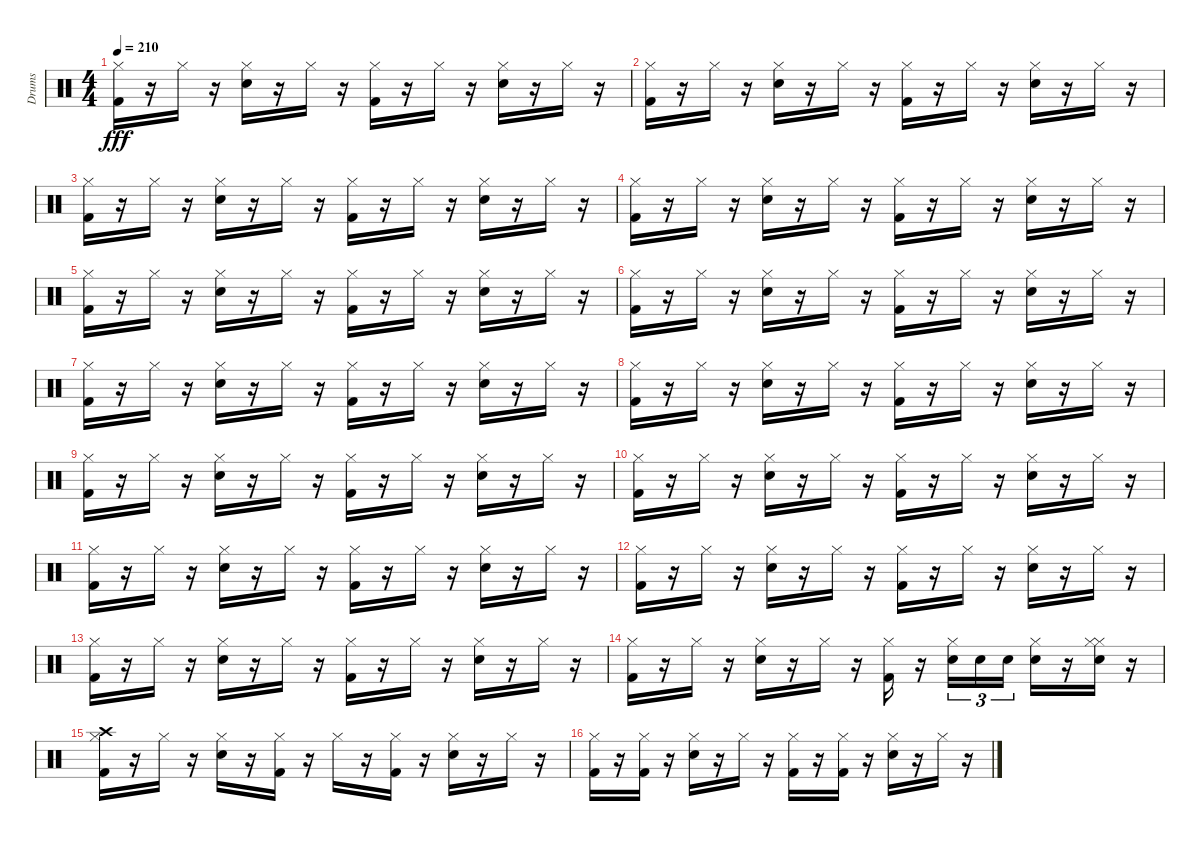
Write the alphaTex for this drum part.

\track ("Drums" "Drums") {instrument percussion}
\staff {score}
\articulation defaults
\ts (4 4)
\tempo 210
\clef neutral
\ks c
("Kick (hit) 2" "Hi-Hat (closed)").16{dy fff} r.16 "Hi-Hat (closed)".16 r.16 ("Snare (hit) 2" "Hi-Hat (closed)").16 r.16 "Hi-Hat (closed)".16 r.16 ("Hi-Hat (closed)" "Kick (hit) 2").16 r.16 "Hi-Hat (closed)".16 r.16 ("Hi-Hat (closed)" "Snare (hit) 2").16 r.16 "Hi-Hat (closed)".16 r.16 |
("Hi-Hat (closed)" "Kick (hit) 2").16 r.16 "Hi-Hat (closed)".16 r.16 ("Snare (hit) 2" "Hi-Hat (closed)").16 r.16 "Hi-Hat (closed)".16 r.16 ("Kick (hit) 2" "Hi-Hat (closed)").16 r.16 "Hi-Hat (closed)".16 r.16 ("Snare (hit) 2" "Hi-Hat (closed)").16 r.16 "Hi-Hat (closed)".16 r.16 |
("Kick (hit) 2" "Hi-Hat (closed)").16 r.16 "Hi-Hat (closed)".16 r.16 ("Snare (hit) 2" "Hi-Hat (closed)").16 r.16 "Hi-Hat (closed)".16 r.16 ("Hi-Hat (closed)" "Kick (hit) 2").16 r.16 "Hi-Hat (closed)".16 r.16 ("Snare (hit) 2" "Hi-Hat (closed)").16 r.16 "Hi-Hat (closed)".16 r.16 |
("Hi-Hat (closed)" "Kick (hit) 2").16 r.16 "Hi-Hat (closed)".16 r.16 ("Hi-Hat (closed)" "Snare (hit) 2").16 r.16 "Hi-Hat (closed)".16 r.16 ("Kick (hit) 2" "Hi-Hat (closed)").16 r.16 "Hi-Hat (closed)".16 r.16 ("Hi-Hat (closed)" "Snare (hit) 2").16 r.16 "Hi-Hat (closed)".16 r.16 |
("Kick (hit) 2" "Hi-Hat (closed)").16 r.16 "Hi-Hat (closed)".16 r.16 ("Snare (hit) 2" "Hi-Hat (closed)").16 r.16 "Hi-Hat (closed)".16 r.16 ("Hi-Hat (closed)" "Kick (hit) 2").16 r.16 "Hi-Hat (closed)".16 r.16 ("Snare (hit) 2" "Hi-Hat (closed)").16 r.16 "Hi-Hat (closed)".16 r.16 |
("Hi-Hat (closed)" "Kick (hit) 2").16 r.16 "Hi-Hat (closed)".16 r.16 ("Hi-Hat (closed)" "Snare (hit) 2").16 r.16 "Hi-Hat (closed)".16 r.16 ("Kick (hit) 2" "Hi-Hat (closed)").16 r.16 "Hi-Hat (closed)".16 r.16 ("Hi-Hat (closed)" "Snare (hit) 2").16 r.16 "Hi-Hat (closed)".16 r.16 |
("Hi-Hat (closed)" "Kick (hit) 2").16 r.16 "Hi-Hat (closed)".16 r.16 ("Snare (hit) 2" "Hi-Hat (closed)").16 r.16 "Hi-Hat (closed)".16 r.16 ("Kick (hit) 2" "Hi-Hat (closed)").16 r.16 "Hi-Hat (closed)".16 r.16 ("Hi-Hat (closed)" "Snare (hit) 2").16 r.16 "Hi-Hat (closed)".16 r.16 |
("Kick (hit) 2" "Hi-Hat (closed)").16 r.16 "Hi-Hat (closed)".16 r.16 ("Snare (hit) 2" "Hi-Hat (closed)").16 r.16 "Hi-Hat (closed)".16 r.16 ("Hi-Hat (closed)" "Kick (hit) 2").16 r.16 "Hi-Hat (closed)".16 r.16 ("Snare (hit) 2" "Hi-Hat (closed)").16 r.16 "Hi-Hat (closed)".16 r.16 |
("Hi-Hat (closed)" "Kick (hit) 2").16 r.16 "Hi-Hat (closed)".16 r.16 ("Snare (hit) 2" "Hi-Hat (closed)").16 r.16 "Hi-Hat (closed)".16 r.16 ("Hi-Hat (closed)" "Kick (hit) 2").16 r.16 "Hi-Hat (closed)".16 r.16 ("Snare (hit) 2" "Hi-Hat (closed)").16 r.16 "Hi-Hat (closed)".16 r.16 |
("Hi-Hat (closed)" "Kick (hit) 2").16 r.16 "Hi-Hat (closed)".16 r.16 ("Hi-Hat (closed)" "Snare (hit) 2").16 r.16 "Hi-Hat (closed)".16 r.16 ("Hi-Hat (closed)" "Kick (hit) 2").16 r.16 "Hi-Hat (closed)".16 r.16 ("Hi-Hat (closed)" "Snare (hit) 2").16 r.16 "Hi-Hat (closed)".16 r.16 |
("Kick (hit) 2" "Hi-Hat (closed)").16 r.16 "Hi-Hat (closed)".16 r.16 ("Hi-Hat (closed)" "Snare (hit) 2").16 r.16 "Hi-Hat (closed)".16 r.16 ("Kick (hit) 2" "Hi-Hat (closed)").16 r.16 "Hi-Hat (closed)".16 r.16 ("Hi-Hat (closed)" "Snare (hit) 2").16 r.16 "Hi-Hat (closed)".16 r.16 |
("Kick (hit) 2" "Hi-Hat (closed)").16 r.16 "Hi-Hat (closed)".16 r.16 ("Hi-Hat (closed)" "Snare (hit) 2").16 r.16 "Hi-Hat (closed)".16 r.16 ("Kick (hit) 2" "Hi-Hat (closed)").16 r.16 "Hi-Hat (closed)".16 r.16 ("Snare (hit) 2" "Hi-Hat (closed)").16 r.16 "Hi-Hat (closed)".16 r.16 |
("Kick (hit) 2" "Hi-Hat (closed)").16 r.16 "Hi-Hat (closed)".16 r.16 ("Hi-Hat (closed)" "Snare (hit) 2").16 r.16 "Hi-Hat (closed)".16 r.16 ("Hi-Hat (closed)" "Kick (hit) 2").16 r.16 "Hi-Hat (closed)".16 r.16 ("Snare (hit) 2" "Hi-Hat (closed)").16 r.16 "Hi-Hat (closed)".16 r.16 |
("Kick (hit) 2" "Hi-Hat (closed)").16 r.16 "Hi-Hat (closed)".16 r.16 ("Snare (hit) 2" "Hi-Hat (closed)").16 r.16 "Hi-Hat (closed)".16 r.16 ("Hi-Hat (closed)" "Kick (hit) 2").16 r.16 ("Snare (hit) 2" "Hi-Hat (closed)").16{tu (3 2)} "Snare (hit) 2".16{tu (3 2)} "Snare (hit) 2".16{tu (3 2)} ("Hi-Hat (closed)" "Snare (hit) 2").16 r.16 ("Hi-Hat (closed)" "Hi-Hat (closed)" "Snare (hit) 2").16 r.16 |
("Kick (hit) 2" "Crash high (hit)" "Hi-Hat (closed)").16 r.16 "Hi-Hat (closed)".16 r.16 ("Hi-Hat (closed)" "Snare (hit) 2").16 r.16 ("Hi-Hat (closed)" "Kick (hit) 2").16 r.16 "Hi-Hat (closed)".16 r.16 ("Hi-Hat (closed)" "Kick (hit) 2").16 r.16 ("Snare (hit) 2" "Hi-Hat (closed)").16 r.16 "Hi-Hat (closed)".16 r.16 |
("Kick (hit) 2" "Hi-Hat (closed)").16 r.16 ("Kick (hit) 2" "Hi-Hat (closed)").16 r.16 ("Snare (hit) 2" "Hi-Hat (closed)").16 r.16 "Hi-Hat (closed)".16 r.16 ("Hi-Hat (closed)" "Kick (hit) 2").16 r.16 ("Kick (hit) 2" "Hi-Hat (closed)").16 r.16 ("Snare (hit) 2" "Hi-Hat (closed)").16 r.16 "Hi-Hat (closed)".16 r.16
